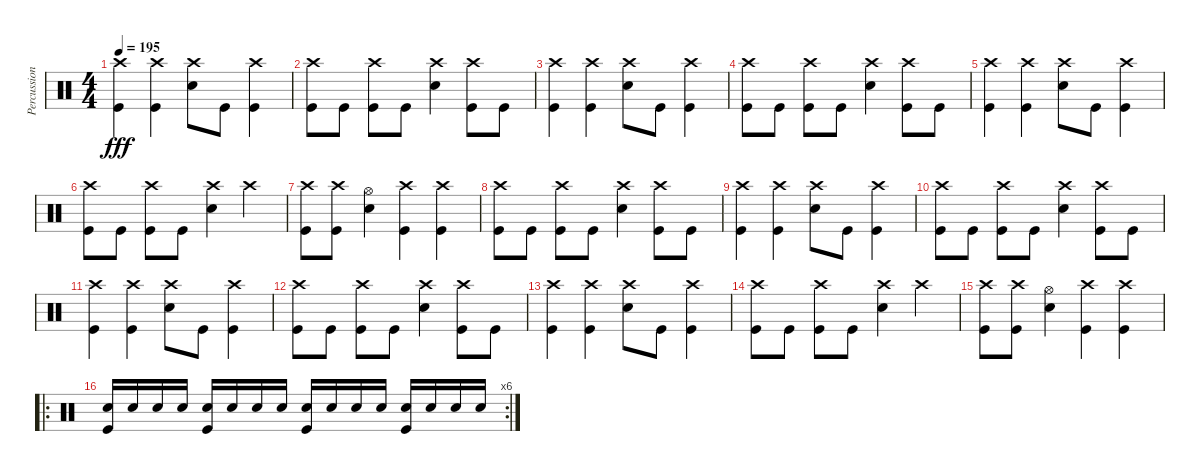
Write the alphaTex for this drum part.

\track ("Percussions" "Percussion") {instrument percussion}
\staff {score}
\articulation defaults
\ts (4 4)
\tempo 195
\clef neutral
\ks c
("Crash high (hit)" "Kick (hit)").4{dy fff} ("Crash high (hit)" "Kick (hit)").4 ("Crash high (hit)" "Electric Snare (hit)").8 "Kick (hit)".8 ("Crash high (hit)" "Kick (hit)").4 |
("Crash high (hit)" "Kick (hit)").8 "Kick (hit)".8 ("Crash high (hit)" "Kick (hit)").8 "Kick (hit)".8 ("Crash high (hit)" "Electric Snare (hit)").4 ("Crash high (hit)" "Kick (hit)").8 "Kick (hit)".8 |
("Crash high (hit)" "Kick (hit)").4 ("Crash high (hit)" "Kick (hit)").4 ("Crash high (hit)" "Electric Snare (hit)").8 "Kick (hit)".8 ("Crash high (hit)" "Kick (hit)").4 |
("Crash high (hit)" "Kick (hit)").8 "Kick (hit)".8 ("Crash high (hit)" "Kick (hit)").8 "Kick (hit)".8 ("Crash high (hit)" "Electric Snare (hit)").4 ("Crash high (hit)" "Kick (hit)").8 "Kick (hit)".8 |
("Crash high (hit)" "Kick (hit)").4 ("Crash high (hit)" "Kick (hit)").4 ("Crash high (hit)" "Electric Snare (hit)").8 "Kick (hit)".8 ("Crash high (hit)" "Kick (hit)").4 |
("Crash high (hit)" "Kick (hit)").8 "Kick (hit)".8 ("Crash high (hit)" "Kick (hit)").8 "Kick (hit)".8 ("Crash high (hit)" "Electric Snare (hit)").4 "Crash high (hit)".4 |
("Crash high (hit)" "Kick (hit)").8 ("Crash high (hit)" "Kick (hit)").8 ("Hi-Hat (open)" "Electric Snare (hit)").4 ("Crash high (hit)" "Kick (hit)").4 ("Crash high (hit)" "Kick (hit)").4 |
("Crash high (hit)" "Kick (hit)").8 "Kick (hit)".8 ("Crash high (hit)" "Kick (hit)").8 "Kick (hit)".8 ("Crash high (hit)" "Electric Snare (hit)").4 ("Crash high (hit)" "Kick (hit)").8 "Kick (hit)".8 |
("Crash high (hit)" "Kick (hit)").4 ("Crash high (hit)" "Kick (hit)").4 ("Crash high (hit)" "Electric Snare (hit)").8 "Kick (hit)".8 ("Crash high (hit)" "Kick (hit)").4 |
("Crash high (hit)" "Kick (hit)").8 "Kick (hit)".8 ("Crash high (hit)" "Kick (hit)").8 "Kick (hit)".8 ("Crash high (hit)" "Electric Snare (hit)").4 ("Crash high (hit)" "Kick (hit)").8 "Kick (hit)".8 |
("Crash high (hit)" "Kick (hit)").4 ("Crash high (hit)" "Kick (hit)").4 ("Crash high (hit)" "Electric Snare (hit)").8 "Kick (hit)".8 ("Crash high (hit)" "Kick (hit)").4 |
("Crash high (hit)" "Kick (hit)").8 "Kick (hit)".8 ("Crash high (hit)" "Kick (hit)").8 "Kick (hit)".8 ("Crash high (hit)" "Electric Snare (hit)").4 ("Crash high (hit)" "Kick (hit)").8 "Kick (hit)".8 |
("Crash high (hit)" "Kick (hit)").4 ("Crash high (hit)" "Kick (hit)").4 ("Crash high (hit)" "Electric Snare (hit)").8 "Kick (hit)".8 ("Crash high (hit)" "Kick (hit)").4 |
("Crash high (hit)" "Kick (hit)").8 "Kick (hit)".8 ("Crash high (hit)" "Kick (hit)").8 "Kick (hit)".8 ("Crash high (hit)" "Electric Snare (hit)").4 "Crash high (hit)".4 |
("Crash high (hit)" "Kick (hit)").8 ("Crash high (hit)" "Kick (hit)").8 ("Hi-Hat (open)" "Electric Snare (hit)").4 ("Crash high (hit)" "Kick (hit)").4 ("Crash high (hit)" "Kick (hit)").4 |
\ro
\rc 6
("Electric Snare (hit)" "Kick (hit)").16 "Electric Snare (hit)".16 "Electric Snare (hit)".16 "Electric Snare (hit)".16 ("Electric Snare (hit)" "Kick (hit)").16 "Electric Snare (hit)".16 "Electric Snare (hit)".16 "Electric Snare (hit)".16 ("Electric Snare (hit)" "Kick (hit)").16 "Electric Snare (hit)".16 "Electric Snare (hit)".16 "Electric Snare (hit)".16 ("Electric Snare (hit)" "Kick (hit)").16 "Electric Snare (hit)".16 "Electric Snare (hit)".16 "Electric Snare (hit)".16
